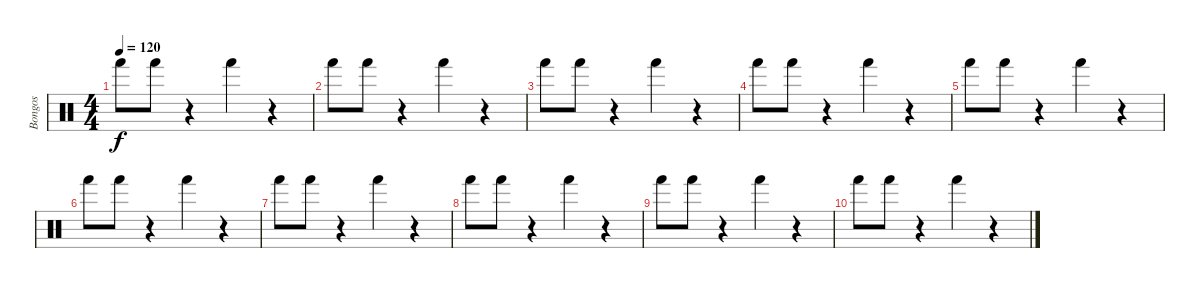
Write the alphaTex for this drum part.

\track ("Bongos" "Bongos") {instrument percussion}
\staff {score}
\articulation defaults
\ts (4 4)
\tempo 120
\clef neutral
\ks c "Hand (hit)".8{dy f} "Hand (hit)".8
r.4 "Hand (hit)".4 r.4 |
"Hand (hit)".8 "Hand (hit)".8 r.4 "Hand (hit)".4 r.4 |
"Hand (hit)".8 "Hand (hit)".8 r.4 "Hand (hit)".4 r.4 |
"Hand (hit)".8 "Hand (hit)".8 r.4 "Hand (hit)".4 r.4 |
"Hand (hit)".8 "Hand (hit)".8 r.4 "Hand (hit)".4 r.4 |
"Hand (hit)".8 "Hand (hit)".8 r.4 "Hand (hit)".4 r.4 |
"Hand (hit)".8 "Hand (hit)".8 r.4 "Hand (hit)".4 r.4 |
"Hand (hit)".8 "Hand (hit)".8 r.4 "Hand (hit)".4 r.4 |
"Hand (hit)".8 "Hand (hit)".8 r.4 "Hand (hit)".4 r.4 |
"Hand (hit)".8 "Hand (hit)".8 r.4 "Hand (hit)".4 r.4
